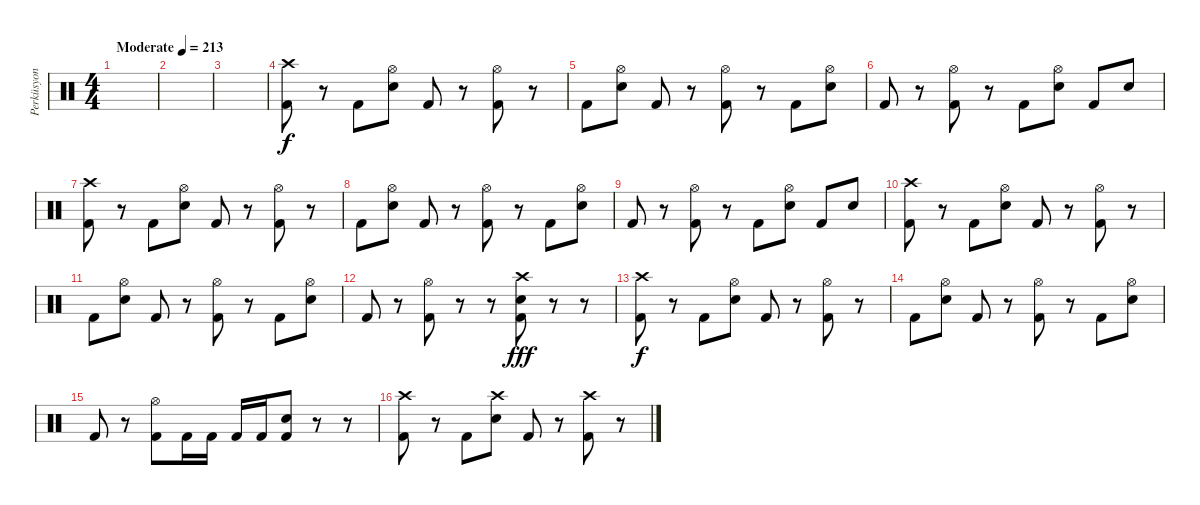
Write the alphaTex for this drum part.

\track ("Perküsyon" "Perküsyon") {instrument percussion}
\staff {score}
\articulation defaults
\ts (4 4)
\tempo (213 "Moderate")
\clef neutral
\ks c
|
|
|
("Crash high (hit)" "Kick (hit) 2").8 r.8 "Kick (hit) 2".8 ("Hi-Hat (open)" "Electric Snare (hit)").8 "Kick (hit) 2".8 r.8 ("Hi-Hat (open)" "Kick (hit) 2").8 r.8 |
"Kick (hit) 2".8 ("Hi-Hat (open)" "Electric Snare (hit)").8 "Kick (hit) 2".8 r.8 ("Hi-Hat (open)" "Kick (hit) 2").8 r.8 "Kick (hit) 2".8 ("Hi-Hat (open)" "Electric Snare (hit)").8 |
"Kick (hit) 2".8 r.8 ("Hi-Hat (open)" "Kick (hit) 2").8 r.8 "Kick (hit) 2".8 ("Hi-Hat (open)" "Electric Snare (hit)").8 "Kick (hit) 2".8 "Electric Snare (hit)".8 |
("Crash high (hit)" "Kick (hit) 2").8 r.8 "Kick (hit) 2".8 ("Hi-Hat (open)" "Electric Snare (hit)").8 "Kick (hit) 2".8 r.8 ("Hi-Hat (open)" "Kick (hit) 2").8 r.8 |
"Kick (hit) 2".8 ("Hi-Hat (open)" "Electric Snare (hit)").8 "Kick (hit) 2".8 r.8 ("Hi-Hat (open)" "Kick (hit) 2").8 r.8 "Kick (hit) 2".8 ("Hi-Hat (open)" "Electric Snare (hit)").8 |
"Kick (hit) 2".8 r.8 ("Hi-Hat (open)" "Kick (hit) 2").8 r.8 "Kick (hit) 2".8 ("Hi-Hat (open)" "Electric Snare (hit)").8 "Kick (hit) 2".8 "Electric Snare (hit)".8 |
("Crash high (hit)" "Kick (hit) 2").8 r.8 "Kick (hit) 2".8 ("Hi-Hat (open)" "Electric Snare (hit)").8 "Kick (hit) 2".8 r.8 ("Hi-Hat (open)" "Kick (hit) 2").8 r.8 |
"Kick (hit) 2".8 ("Hi-Hat (open)" "Electric Snare (hit)").8 "Kick (hit) 2".8 r.8 ("Hi-Hat (open)" "Kick (hit) 2").8 r.8 "Kick (hit) 2".8 ("Hi-Hat (open)" "Electric Snare (hit)").8 |
"Kick (hit) 2".8 r.8 ("Hi-Hat (open)" "Kick (hit) 2").8 r.8 r.8 ("Crash high (hit)" "Electric Snare (hit)" "Kick (hit) 2").8{dy fff} r.8 r.8 |
("Crash high (hit)" "Kick (hit) 2").8{dy f} r.8 "Kick (hit) 2".8 ("Hi-Hat (open)" "Electric Snare (hit)").8 "Kick (hit) 2".8 r.8 ("Hi-Hat (open)" "Kick (hit) 2").8 r.8 |
"Kick (hit) 2".8 ("Hi-Hat (open)" "Electric Snare (hit)").8 "Kick (hit) 2".8 r.8 ("Hi-Hat (open)" "Kick (hit) 2").8 r.8 "Kick (hit) 2".8 ("Hi-Hat (open)" "Electric Snare (hit)").8 |
"Kick (hit) 2".8 r.8 ("Hi-Hat (open)" "Kick (hit) 2").8 "Kick (hit) 2".16 "Kick (hit) 2".16 "Kick (hit) 2".16 "Kick (hit) 2".16 ("Electric Snare (hit)" "Kick (hit) 2").8 r.8 r.8 |
("Crash high (hit)" "Kick (hit) 2").8 r.8 "Kick (hit) 2".8 ("Crash high (hit)" "Electric Snare (hit)").8 "Kick (hit) 2".8 r.8 ("Crash high (hit)" "Kick (hit) 2").8 r.8
